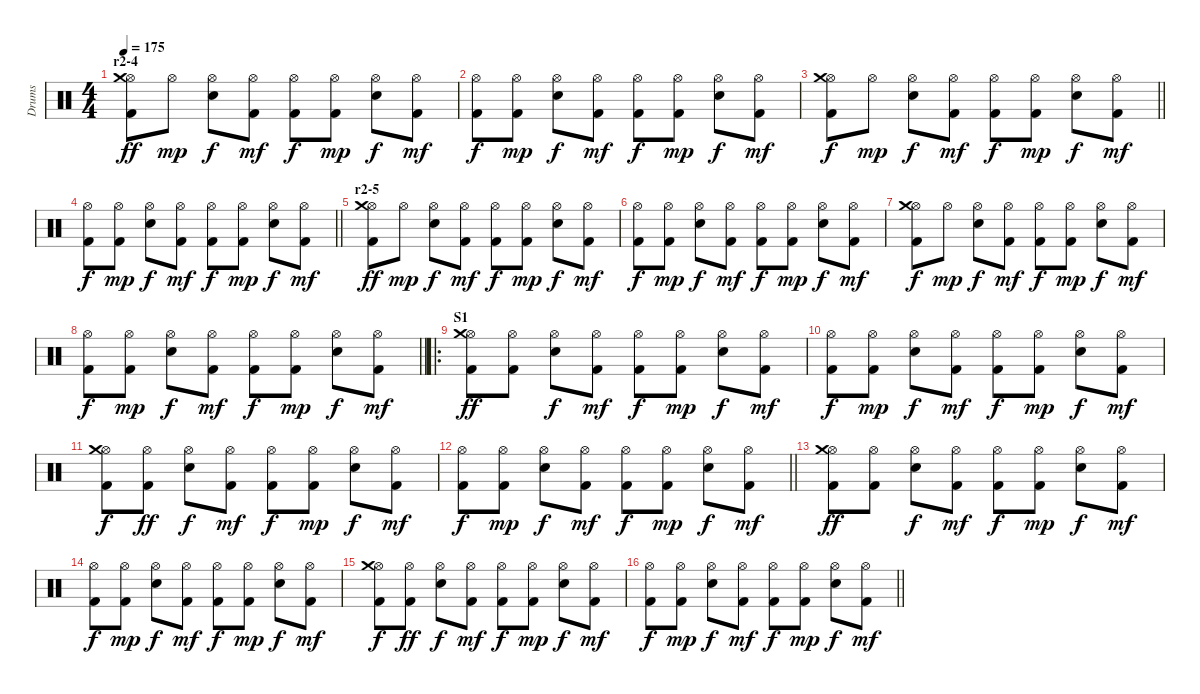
\track ("Drums" "Drums") {instrument percussion}
\staff {score}
\articulation defaults
\ts (4 4)
\section ("" "r2-4")
\tempo 175
\clef neutral
\ks c
("Hi-Hat (open)" "Crash medium (hit)" "Kick (hit) 2").8{dy ff} "Hi-Hat (open)".8{dy mp} ("Hi-Hat (open)" "Electric Snare (hit)").8{dy f} ("Hi-Hat (open)" "Kick (hit) 2").8{dy mf} ("Hi-Hat (open)" "Kick (hit) 2").8{dy f} ("Hi-Hat (open)" "Kick (hit) 2").8{dy mp} ("Hi-Hat (open)" "Electric Snare (hit)").8{dy f} ("Hi-Hat (open)" "Kick (hit) 2").8{dy mf} |
("Hi-Hat (open)" "Kick (hit) 2").8{dy f} ("Hi-Hat (open)" "Kick (hit) 2").8{dy mp} ("Hi-Hat (open)" "Electric Snare (hit)").8{dy f} ("Hi-Hat (open)" "Kick (hit) 2").8{dy mf} ("Hi-Hat (open)" "Kick (hit) 2").8{dy f} ("Hi-Hat (open)" "Kick (hit) 2").8{dy mp} ("Hi-Hat (open)" "Electric Snare (hit)").8{dy f} ("Hi-Hat (open)" "Kick (hit) 2").8{dy mf} |
\barLineRight lightlight
("Hi-Hat (open)" "Crash medium (hit)" "Kick (hit) 2").8{dy f} "Hi-Hat (open)".8{dy mp} ("Hi-Hat (open)" "Electric Snare (hit)").8{dy f} ("Hi-Hat (open)" "Kick (hit) 2").8{dy mf} ("Hi-Hat (open)" "Kick (hit) 2").8{dy f} ("Hi-Hat (open)" "Kick (hit) 2").8{dy mp} ("Hi-Hat (open)" "Electric Snare (hit)").8{dy f} ("Hi-Hat (open)" "Kick (hit) 2").8{dy mf} |
\section ("" "")
\barLineRight lightlight
("Hi-Hat (open)" "Kick (hit) 2").8{dy f} ("Hi-Hat (open)" "Kick (hit) 2").8{dy mp} ("Hi-Hat (open)" "Electric Snare (hit)").8{dy f} ("Hi-Hat (open)" "Kick (hit) 2").8{dy mf} ("Hi-Hat (open)" "Kick (hit) 2").8{dy f} ("Hi-Hat (open)" "Kick (hit) 2").8{dy mp} ("Hi-Hat (open)" "Electric Snare (hit)").8{dy f} ("Hi-Hat (open)" "Kick (hit) 2").8{dy mf} |
\section ("" "r2-5")
("Hi-Hat (open)" "Crash medium (hit)" "Kick (hit) 2").8{dy ff} "Hi-Hat (open)".8{dy mp} ("Hi-Hat (open)" "Electric Snare (hit)").8{dy f} ("Hi-Hat (open)" "Kick (hit) 2").8{dy mf} ("Hi-Hat (open)" "Kick (hit) 2").8{dy f} ("Hi-Hat (open)" "Kick (hit) 2").8{dy mp} ("Hi-Hat (open)" "Electric Snare (hit)").8{dy f} ("Hi-Hat (open)" "Kick (hit) 2").8{dy mf} |
("Hi-Hat (open)" "Kick (hit) 2").8{dy f} ("Hi-Hat (open)" "Kick (hit) 2").8{dy mp} ("Hi-Hat (open)" "Electric Snare (hit)").8{dy f} ("Hi-Hat (open)" "Kick (hit) 2").8{dy mf} ("Hi-Hat (open)" "Kick (hit) 2").8{dy f} ("Hi-Hat (open)" "Kick (hit) 2").8{dy mp} ("Hi-Hat (open)" "Electric Snare (hit)").8{dy f} ("Hi-Hat (open)" "Kick (hit) 2").8{dy mf} |
("Hi-Hat (open)" "Crash medium (hit)" "Kick (hit) 2").8{dy f} "Hi-Hat (open)".8{dy mp} ("Hi-Hat (open)" "Electric Snare (hit)").8{dy f} ("Hi-Hat (open)" "Kick (hit) 2").8{dy mf} ("Hi-Hat (open)" "Kick (hit) 2").8{dy f} ("Hi-Hat (open)" "Kick (hit) 2").8{dy mp} ("Hi-Hat (open)" "Electric Snare (hit)").8{dy f} ("Hi-Hat (open)" "Kick (hit) 2").8{dy mf} |
\barLineRight lightlight
("Hi-Hat (open)" "Kick (hit) 2").8{dy f} ("Hi-Hat (open)" "Kick (hit) 2").8{dy mp} ("Hi-Hat (open)" "Electric Snare (hit)").8{dy f} ("Hi-Hat (open)" "Kick (hit) 2").8{dy mf} ("Hi-Hat (open)" "Kick (hit) 2").8{dy f} ("Hi-Hat (open)" "Kick (hit) 2").8{dy mp} ("Hi-Hat (open)" "Electric Snare (hit)").8{dy f} ("Hi-Hat (open)" "Kick (hit) 2").8{dy mf} |
\ro
\section ("" "S1")
("Hi-Hat (open)" "Crash medium (hit)" "Kick (hit) 2").8{dy ff} ("Hi-Hat (open)" "Kick (hit) 2").8 ("Hi-Hat (open)" "Electric Snare (hit)").8{dy f} ("Hi-Hat (open)" "Kick (hit) 2").8{dy mf} ("Hi-Hat (open)" "Kick (hit) 2").8{dy f} ("Hi-Hat (open)" "Kick (hit) 2").8{dy mp} ("Hi-Hat (open)" "Electric Snare (hit)").8{dy f} ("Hi-Hat (open)" "Kick (hit) 2").8{dy mf} |
("Hi-Hat (open)" "Kick (hit) 2").8{dy f} ("Hi-Hat (open)" "Kick (hit) 2").8{dy mp} ("Hi-Hat (open)" "Electric Snare (hit)").8{dy f} ("Hi-Hat (open)" "Kick (hit) 2").8{dy mf} ("Hi-Hat (open)" "Kick (hit) 2").8{dy f} ("Hi-Hat (open)" "Kick (hit) 2").8{dy mp} ("Hi-Hat (open)" "Electric Snare (hit)").8{dy f} ("Hi-Hat (open)" "Kick (hit) 2").8{dy mf} |
("Hi-Hat (open)" "Crash medium (hit)" "Kick (hit) 2").8{dy f} ("Hi-Hat (open)" "Kick (hit) 2").8{dy ff} ("Hi-Hat (open)" "Electric Snare (hit)").8{dy f} ("Hi-Hat (open)" "Kick (hit) 2").8{dy mf} ("Hi-Hat (open)" "Kick (hit) 2").8{dy f} ("Hi-Hat (open)" "Kick (hit) 2").8{dy mp} ("Hi-Hat (open)" "Electric Snare (hit)").8{dy f} ("Hi-Hat (open)" "Kick (hit) 2").8{dy mf} |
\barLineRight lightlight
("Hi-Hat (open)" "Kick (hit) 2").8{dy f} ("Hi-Hat (open)" "Kick (hit) 2").8{dy mp} ("Hi-Hat (open)" "Electric Snare (hit)").8{dy f} ("Hi-Hat (open)" "Kick (hit) 2").8{dy mf} ("Hi-Hat (open)" "Kick (hit) 2").8{dy f} ("Hi-Hat (open)" "Kick (hit) 2").8{dy mp} ("Hi-Hat (open)" "Electric Snare (hit)").8{dy f} ("Hi-Hat (open)" "Kick (hit) 2").8{dy mf} |
("Hi-Hat (open)" "Crash medium (hit)" "Kick (hit) 2").8{dy ff} ("Hi-Hat (open)" "Kick (hit) 2").8 ("Hi-Hat (open)" "Electric Snare (hit)").8{dy f} ("Hi-Hat (open)" "Kick (hit) 2").8{dy mf} ("Hi-Hat (open)" "Kick (hit) 2").8{dy f} ("Hi-Hat (open)" "Kick (hit) 2").8{dy mp} ("Hi-Hat (open)" "Electric Snare (hit)").8{dy f} ("Hi-Hat (open)" "Kick (hit) 2").8{dy mf} |
("Hi-Hat (open)" "Kick (hit) 2").8{dy f} ("Hi-Hat (open)" "Kick (hit) 2").8{dy mp} ("Hi-Hat (open)" "Electric Snare (hit)").8{dy f} ("Hi-Hat (open)" "Kick (hit) 2").8{dy mf} ("Hi-Hat (open)" "Kick (hit) 2").8{dy f} ("Hi-Hat (open)" "Kick (hit) 2").8{dy mp} ("Hi-Hat (open)" "Electric Snare (hit)").8{dy f} ("Hi-Hat (open)" "Kick (hit) 2").8{dy mf} |
("Hi-Hat (open)" "Crash medium (hit)" "Kick (hit) 2").8{dy f} ("Hi-Hat (open)" "Kick (hit) 2").8{dy ff} ("Hi-Hat (open)" "Electric Snare (hit)").8{dy f} ("Hi-Hat (open)" "Kick (hit) 2").8{dy mf} ("Hi-Hat (open)" "Kick (hit) 2").8{dy f} ("Hi-Hat (open)" "Kick (hit) 2").8{dy mp} ("Hi-Hat (open)" "Electric Snare (hit)").8{dy f} ("Hi-Hat (open)" "Kick (hit) 2").8{dy mf} |
\barLineRight lightlight
("Hi-Hat (open)" "Kick (hit) 2").8{dy f} ("Hi-Hat (open)" "Kick (hit) 2").8{dy mp} ("Hi-Hat (open)" "Electric Snare (hit)").8{dy f} ("Hi-Hat (open)" "Kick (hit) 2").8{dy mf} ("Hi-Hat (open)" "Kick (hit) 2").8{dy f} ("Hi-Hat (open)" "Kick (hit) 2").8{dy mp} ("Hi-Hat (open)" "Electric Snare (hit)").8{dy f} ("Hi-Hat (open)" "Kick (hit) 2").8{dy mf}
